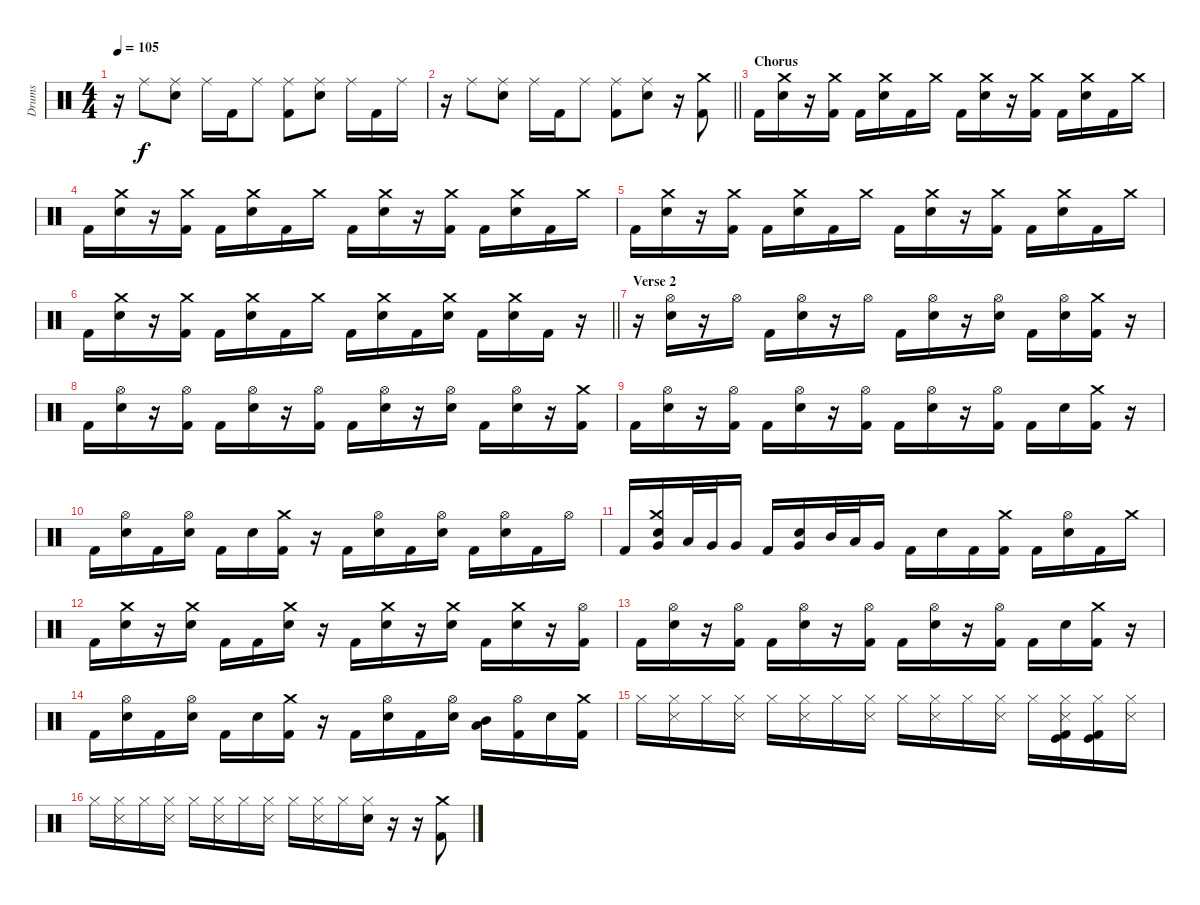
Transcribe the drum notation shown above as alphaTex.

\track ("Drums" "Drums") {instrument percussion}
\staff {score}
\articulation defaults
\ts (4 4)
\tempo 105
\clef neutral
\ks c
r.16{dy f} "Ride (middle)".8 ("Ride (middle)" "Electric Snare (hit)").8 "Ride (middle)".16 "Kick (hit) 2".16 "Ride (middle)".8 ("Ride (middle)" "Kick (hit) 2").8 ("Ride (middle)" "Electric Snare (hit)").8 "Ride (middle)".16 "Kick (hit) 2".16 "Ride (middle)".16 |
\barLineRight lightlight
r.16 "Ride (middle)".8 ("Ride (middle)" "Electric Snare (hit)").8 "Ride (middle)".16 "Kick (hit) 2".16 "Ride (middle)".8 ("Ride (middle)" "Kick (hit) 2").8 ("Ride (middle)" "Electric Snare (hit)").8 r.16 ("Crash medium (hit)" "Kick (hit) 2").8 |
\section ("" "Chorus")
"Kick (hit) 2".16 ("Crash medium (hit)" "Electric Snare (hit)").16 r.16 ("Crash medium (hit)" "Kick (hit) 2").16 "Kick (hit) 2".16 ("Crash medium (hit)" "Electric Snare (hit)").16 "Kick (hit) 2".16 "Crash medium (hit)".16 "Kick (hit) 2".16 ("Crash medium (hit)" "Electric Snare (hit)").16 r.16 ("Crash medium (hit)" "Kick (hit) 2").16 "Kick (hit) 2".16 ("Crash medium (hit)" "Electric Snare (hit)").16 "Kick (hit) 2".16 "Crash medium (hit)".16 |
"Kick (hit) 2".16 ("Crash medium (hit)" "Electric Snare (hit)").16 r.16 ("Crash medium (hit)" "Kick (hit) 2").16 "Kick (hit) 2".16 ("Crash medium (hit)" "Electric Snare (hit)").16 "Kick (hit) 2".16 "Crash medium (hit)".16 "Kick (hit) 2".16 ("Crash medium (hit)" "Electric Snare (hit)").16 r.16 ("Crash medium (hit)" "Kick (hit) 2").16 "Kick (hit) 2".16 ("Crash medium (hit)" "Electric Snare (hit)").16 "Kick (hit) 2".16 "Crash medium (hit)".16 |
"Kick (hit) 2".16 ("Crash medium (hit)" "Electric Snare (hit)").16 r.16 ("Crash medium (hit)" "Kick (hit) 2").16 "Kick (hit) 2".16 ("Crash medium (hit)" "Electric Snare (hit)").16 "Kick (hit) 2".16 "Crash medium (hit)".16 "Kick (hit) 2".16 ("Crash medium (hit)" "Electric Snare (hit)").16 r.16 ("Crash medium (hit)" "Kick (hit) 2").16 "Kick (hit) 2".16 ("Crash medium (hit)" "Electric Snare (hit)").16 "Kick (hit) 2".16 "Crash medium (hit)".16 |
\barLineRight lightlight "Kick (hit) 2".16
("Crash medium (hit)" "Electric Snare (hit)").16 r.16 ("Crash medium (hit)" "Kick (hit) 2").16 "Kick (hit) 2".16 ("Crash medium (hit)" "Electric Snare (hit)").16 "Kick (hit) 2".16 "Crash medium (hit)".16 "Kick (hit) 2".16 ("Crash medium (hit)" "Electric Snare (hit)").16 "Kick (hit) 2".16 ("Crash medium (hit)" "Electric Snare (hit)").16 "Kick (hit) 2".16 ("Crash medium (hit)" "Electric Snare (hit)").16 "Kick (hit) 2".16 r.16 |
\section ("" "Verse 2")
r.16 ("Hi-Hat (open)" "Electric Snare (hit)").16 r.16 "Hi-Hat (open)".16 "Kick (hit) 2".16 ("Hi-Hat (open)" "Electric Snare (hit)").16 r.16 "Hi-Hat (open)".16 "Kick (hit) 2".16 ("Hi-Hat (open)" "Electric Snare (hit)").16 r.16 ("Hi-Hat (open)" "Electric Snare (hit)").16 "Kick (hit) 2".16 ("Hi-Hat (open)" "Electric Snare (hit)").16 ("Crash medium (hit)" "Kick (hit) 2").16 r.16 |
"Kick (hit) 2".16 ("Hi-Hat (open)" "Electric Snare (hit)").16 r.16 ("Hi-Hat (open)" "Kick (hit) 2").16 "Kick (hit) 2".16 ("Hi-Hat (open)" "Electric Snare (hit)").16 r.16 ("Hi-Hat (open)" "Kick (hit) 2").16 "Kick (hit) 2".16 ("Hi-Hat (open)" "Electric Snare (hit)").16 r.16 ("Hi-Hat (open)" "Electric Snare (hit)").16 "Kick (hit) 2".16 ("Hi-Hat (open)" "Electric Snare (hit)").16 r.16 ("Crash medium (hit)" "Kick (hit) 2").16 |
"Kick (hit) 2".16 ("Hi-Hat (open)" "Electric Snare (hit)").16 r.16 ("Hi-Hat (open)" "Kick (hit) 2").16 "Kick (hit) 2".16 ("Hi-Hat (open)" "Electric Snare (hit)").16 r.16 ("Hi-Hat (open)" "Kick (hit) 2").16 "Kick (hit) 2".16 ("Hi-Hat (open)" "Electric Snare (hit)").16 r.16 ("Hi-Hat (open)" "Kick (hit) 2").16 "Kick (hit) 2".16 "Electric Snare (hit)".16 ("Crash medium (hit)" "Kick (hit) 2").16 r.16 |
"Kick (hit) 2".16 ("Hi-Hat (open)" "Electric Snare (hit)").16 "Kick (hit) 2".16 ("Hi-Hat (open)" "Electric Snare (hit)").16 "Kick (hit) 2".16 "Electric Snare (hit)".16 ("Crash medium (hit)" "Kick (hit) 2").16 r.16 "Kick (hit) 2".16 ("Hi-Hat (open)" "Electric Snare (hit)").16 "Kick (hit) 2".16 ("Hi-Hat (open)" "Electric Snare (hit)").16 "Kick (hit) 2".16 ("Hi-Hat (open)" "Electric Snare (hit)").16 "Kick (hit) 2".16 "Hi-Hat (open)".16 |
"Kick (hit) 2".16 ("Crash medium (hit)" "Electric Snare (hit)" "Very Low Tom (hit)").16 "Low Tom (hit)".32 "Very Low Tom (hit)".32 "Very Low Tom (hit)".16 "Kick (hit) 2".16 ("Electric Snare (hit)" "Very Low Tom (hit)").16 "Mid Tom (hit)".32 "Low Tom (hit)".32 "Very Low Tom (hit)".16 "Kick (hit) 2".16 "Electric Snare (hit)".16 "Kick (hit) 2".16 ("Crash medium (hit)" "Kick (hit) 2").16 "Kick (hit) 2".16 ("Hi-Hat (open)" "Electric Snare (hit)").16 "Kick (hit) 2".16 "Crash medium (hit)".16 |
"Kick (hit) 2".16 ("Crash medium (hit)" "Electric Snare (hit)").16 r.16 ("Crash medium (hit)" "Electric Snare (hit)").16 "Kick (hit) 2".16 "Kick (hit) 2".16 ("Crash medium (hit)" "Electric Snare (hit)").16 r.16 "Kick (hit) 2".16 ("Crash medium (hit)" "Electric Snare (hit)").16 r.16 ("Crash medium (hit)" "Electric Snare (hit)").16 "Kick (hit) 2".16 ("Crash medium (hit)" "Electric Snare (hit)").16 r.16 ("Hi-Hat (open)" "Kick (hit) 2").16 |
"Kick (hit) 2".16 ("Hi-Hat (open)" "Electric Snare (hit)").16 r.16 ("Hi-Hat (open)" "Kick (hit) 2").16 "Kick (hit) 2".16 ("Hi-Hat (open)" "Electric Snare (hit)").16 r.16 ("Hi-Hat (open)" "Kick (hit) 2").16 "Kick (hit) 2".16 ("Hi-Hat (open)" "Electric Snare (hit)").16 r.16 ("Hi-Hat (open)" "Kick (hit) 2").16 "Kick (hit) 2".16 "Electric Snare (hit)".16 ("Crash medium (hit)" "Kick (hit) 2").16 r.16 |
"Kick (hit) 2".16 ("Hi-Hat (open)" "Electric Snare (hit)").16 "Kick (hit) 2".16 ("Hi-Hat (open)" "Electric Snare (hit)").16 "Kick (hit) 2".16 "Electric Snare (hit)".16 ("Crash medium (hit)" "Kick (hit) 2").16 r.16 "Kick (hit) 2".16 ("Hi-Hat (open)" "Electric Snare (hit)").16 "Kick (hit) 2".16 ("Hi-Hat (open)" "Electric Snare (hit)").16 ("Low Tom (hit)" "Mid Tom (hit)").16 ("Hi-Hat (open)" "Kick (hit) 2").16 "Electric Snare (hit)".16 ("Crash medium (hit)" "Kick (hit) 2").16 |
"Hi-Hat (closed)".16 ("Hi-Hat (closed)" "Snare (side stick) 3").16 "Hi-Hat (closed)".16 ("Hi-Hat (closed)" "Snare (side stick) 3").16 "Hi-Hat (closed)".16 ("Hi-Hat (closed)" "Snare (side stick) 3").16 "Hi-Hat (closed)".16 ("Hi-Hat (closed)" "Snare (side stick) 3").16 "Hi-Hat (closed)".16 ("Hi-Hat (closed)" "Snare (side stick) 3").16 "Hi-Hat (closed)".16 ("Hi-Hat (closed)" "Snare (side stick) 3").16 "Hi-Hat (closed)".16 ("Hi-Hat (closed)" "Snare (side stick) 3" "Kick (hit)" "Kick (hit) 2").16 ("Hi-Hat (closed)" "Kick (hit)" "Kick (hit) 2").16 ("Hi-Hat (closed)" "Snare (side stick) 3").16 |
"Hi-Hat (closed)".16 ("Hi-Hat (closed)" "Snare (side stick) 3").16 "Hi-Hat (closed)".16 ("Hi-Hat (closed)" "Snare (side stick) 3").16 "Hi-Hat (closed)".16 ("Hi-Hat (closed)" "Snare (side stick) 3").16 "Hi-Hat (closed)".16 ("Hi-Hat (closed)" "Snare (side stick) 3").16 "Hi-Hat (closed)".16 ("Hi-Hat (closed)" "Snare (side stick) 3").16 "Hi-Hat (closed)".16 ("Hi-Hat (closed)" "Electric Snare (hit)").16 r.16 r.16 ("Crash medium (hit)" "Kick (hit) 2").8
